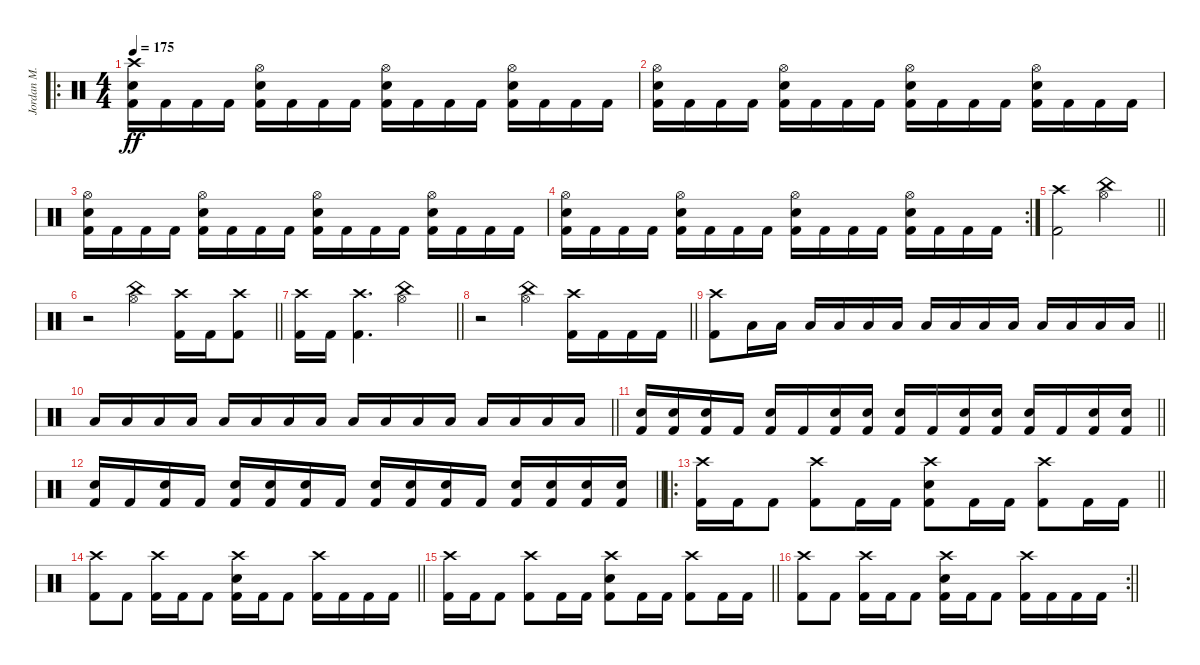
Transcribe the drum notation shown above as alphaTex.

\track ("Jordan M." "Jordan M.") {instrument percussion}
\staff {score}
\articulation defaults
\ro
\ts (4 4)
\tempo 175
\clef neutral
\ks c
("Crash high (hit)" "Electric Snare (hit)" "Kick (hit) 2").16{dy ff} "Kick (hit) 2".16 "Kick (hit) 2".16 "Kick (hit) 2".16 ("Hi-Hat (open)" "Electric Snare (hit)" "Kick (hit) 2").16 "Kick (hit) 2".16 "Kick (hit) 2".16 "Kick (hit) 2".16 ("Hi-Hat (open)" "Electric Snare (hit)" "Kick (hit) 2").16 "Kick (hit) 2".16 "Kick (hit) 2".16 "Kick (hit) 2".16 ("Hi-Hat (open)" "Electric Snare (hit)" "Kick (hit) 2").16 "Kick (hit) 2".16 "Kick (hit) 2".16 "Kick (hit) 2".16 |
("Hi-Hat (open)" "Electric Snare (hit)" "Kick (hit) 2").16 "Kick (hit) 2".16 "Kick (hit) 2".16 "Kick (hit) 2".16 ("Hi-Hat (open)" "Electric Snare (hit)" "Kick (hit) 2").16 "Kick (hit) 2".16 "Kick (hit) 2".16 "Kick (hit) 2".16 ("Hi-Hat (open)" "Electric Snare (hit)" "Kick (hit) 2").16 "Kick (hit) 2".16 "Kick (hit) 2".16 "Kick (hit) 2".16 ("Hi-Hat (open)" "Electric Snare (hit)" "Kick (hit) 2").16 "Kick (hit) 2".16 "Kick (hit) 2".16 "Kick (hit) 2".16 |
("Hi-Hat (open)" "Electric Snare (hit)" "Kick (hit) 2").16 "Kick (hit) 2".16 "Kick (hit) 2".16 "Kick (hit) 2".16 ("Hi-Hat (open)" "Electric Snare (hit)" "Kick (hit) 2").16 "Kick (hit) 2".16 "Kick (hit) 2".16 "Kick (hit) 2".16 ("Hi-Hat (open)" "Electric Snare (hit)" "Kick (hit) 2").16 "Kick (hit) 2".16 "Kick (hit) 2".16 "Kick (hit) 2".16 ("Hi-Hat (open)" "Electric Snare (hit)" "Kick (hit) 2").16 "Kick (hit) 2".16 "Kick (hit) 2".16 "Kick (hit) 2".16 |
\rc 2
("Hi-Hat (open)" "Electric Snare (hit)" "Kick (hit) 2").16 "Kick (hit) 2".16 "Kick (hit) 2".16 "Kick (hit) 2".16 ("Hi-Hat (open)" "Electric Snare (hit)" "Kick (hit) 2").16 "Kick (hit) 2".16 "Kick (hit) 2".16 "Kick (hit) 2".16 ("Hi-Hat (open)" "Electric Snare (hit)" "Kick (hit) 2").16 "Kick (hit) 2".16 "Kick (hit) 2".16 "Kick (hit) 2".16 ("Hi-Hat (open)" "Electric Snare (hit)" "Kick (hit) 2").16 "Kick (hit) 2".16 "Kick (hit) 2".16 "Kick (hit) 2".16 |
\barLineRight lightlight
("Crash high (hit)" "Kick (hit) 2").2 ("China (hit)" "Hi-Hat (open)").2 |
\barLineRight lightlight
r.2 ("China (hit)" "Hi-Hat (open)").4 ("Crash high (hit)" "Kick (hit) 2").16 "Kick (hit) 2".16 ("Crash high (hit)" "Kick (hit) 2").8 |
\barLineRight lightlight
("Crash high (hit)" "Kick (hit) 2").16 "Kick (hit) 2".16 ("Crash high (hit)" "Kick (hit) 2").4{d} ("China (hit)" "Hi-Hat (open)").2 |
\barLineRight lightlight
r.2 ("China (hit)" "Hi-Hat (open)").4 ("Crash high (hit)" "Kick (hit) 2").16 "Kick (hit) 2".16 "Kick (hit) 2".16 "Kick (hit) 2".16 |
\barLineRight lightlight
("Crash high (hit)" "Kick (hit) 2").8 "Low Floor Tom (hit)".16 "Low Floor Tom (hit)".16 "Low Floor Tom (hit)".16 "Low Floor Tom (hit)".16 "Low Floor Tom (hit)".16 "Low Floor Tom (hit)".16 "Low Floor Tom (hit)".16 "Low Floor Tom (hit)".16 "Low Floor Tom (hit)".16 "Low Floor Tom (hit)".16 "Low Floor Tom (hit)".16 "Low Floor Tom (hit)".16 "Low Floor Tom (hit)".16 "Low Floor Tom (hit)".16 |
\barLineRight lightlight "Low Floor Tom (hit)".16 "Low Floor Tom (hit)".16 "Low Floor Tom (hit)".16 "Low Floor Tom (hit)".16 "Low Floor Tom (hit)".16 "Low Floor Tom (hit)".16 "Low Floor Tom (hit)".16 "Low Floor Tom (hit)".16 "Low Floor Tom (hit)".16 "Low Floor Tom (hit)".16 "Low Floor Tom (hit)".16 "Low Floor Tom (hit)".16 "Low Floor Tom (hit)".16 "Low Floor Tom (hit)".16 "Low Floor Tom (hit)".16 "Low Floor Tom (hit)".16
|
\barLineRight lightlight
("Electric Snare (hit)" "Kick (hit) 2").16 ("Electric Snare (hit)" "Kick (hit) 2").16 ("Electric Snare (hit)" "Kick (hit) 2").16 "Kick (hit) 2".16 ("Electric Snare (hit)" "Kick (hit) 2").16 "Kick (hit) 2".16 ("Electric Snare (hit)" "Kick (hit) 2").16 ("Electric Snare (hit)" "Kick (hit) 2").16 ("Electric Snare (hit)" "Kick (hit) 2").16 "Kick (hit) 2".16 ("Electric Snare (hit)" "Kick (hit) 2").16 ("Electric Snare (hit)" "Kick (hit) 2").16 ("Electric Snare (hit)" "Kick (hit) 2").16 "Kick (hit) 2".16 ("Electric Snare (hit)" "Kick (hit) 2").16 ("Electric Snare (hit)" "Kick (hit) 2").16 |
\barLineRight lightlight
("Electric Snare (hit)" "Kick (hit) 2").16 "Kick (hit) 2".16 ("Electric Snare (hit)" "Kick (hit) 2").16 "Kick (hit) 2".16 ("Electric Snare (hit)" "Kick (hit) 2").16 ("Electric Snare (hit)" "Kick (hit) 2").16 ("Electric Snare (hit)" "Kick (hit) 2").16 "Kick (hit) 2".16 ("Electric Snare (hit)" "Kick (hit) 2").16 ("Electric Snare (hit)" "Kick (hit) 2").16 ("Electric Snare (hit)" "Kick (hit) 2").16 "Kick (hit) 2".16 ("Electric Snare (hit)" "Kick (hit) 2").16 ("Electric Snare (hit)" "Kick (hit) 2").16 ("Electric Snare (hit)" "Kick (hit) 2").16 ("Electric Snare (hit)" "Kick (hit) 2").16 |
\ro
\barLineRight lightlight
("Crash high (hit)" "Kick (hit) 2").16 "Kick (hit) 2".16 "Kick (hit) 2".8 ("Crash high (hit)" "Kick (hit) 2").8 "Kick (hit) 2".16 "Kick (hit) 2".16 ("Crash high (hit)" "Electric Snare (hit)" "Kick (hit) 2").8 "Kick (hit) 2".16 "Kick (hit) 2".16 ("Crash high (hit)" "Kick (hit) 2").8 "Kick (hit) 2".16 "Kick (hit) 2".16 |
\barLineRight lightlight
("Crash high (hit)" "Kick (hit) 2").8 "Kick (hit) 2".8 ("Crash high (hit)" "Kick (hit) 2").16 "Kick (hit) 2".16 "Kick (hit) 2".8 ("Crash high (hit)" "Electric Snare (hit)" "Kick (hit) 2").16 "Kick (hit) 2".16 "Kick (hit) 2".8 ("Crash high (hit)" "Kick (hit) 2").16 "Kick (hit) 2".16 "Kick (hit) 2".16 "Kick (hit) 2".16 |
\barLineRight lightlight
("Crash high (hit)" "Kick (hit) 2").16 "Kick (hit) 2".16 "Kick (hit) 2".8 ("Crash high (hit)" "Kick (hit) 2").8 "Kick (hit) 2".16 "Kick (hit) 2".16 ("Crash high (hit)" "Electric Snare (hit)" "Kick (hit) 2").8 "Kick (hit) 2".16 "Kick (hit) 2".16 ("Crash high (hit)" "Kick (hit) 2").8 "Kick (hit) 2".16 "Kick (hit) 2".16 |
\rc 2
\barLineRight lightlight
("Crash high (hit)" "Kick (hit) 2").8 "Kick (hit) 2".8 ("Crash high (hit)" "Kick (hit) 2").16 "Kick (hit) 2".16 "Kick (hit) 2".8 ("Crash high (hit)" "Electric Snare (hit)" "Kick (hit) 2").16 "Kick (hit) 2".16 "Kick (hit) 2".8 ("Crash high (hit)" "Kick (hit) 2").16 "Kick (hit) 2".16 "Kick (hit) 2".16 "Kick (hit) 2".16
